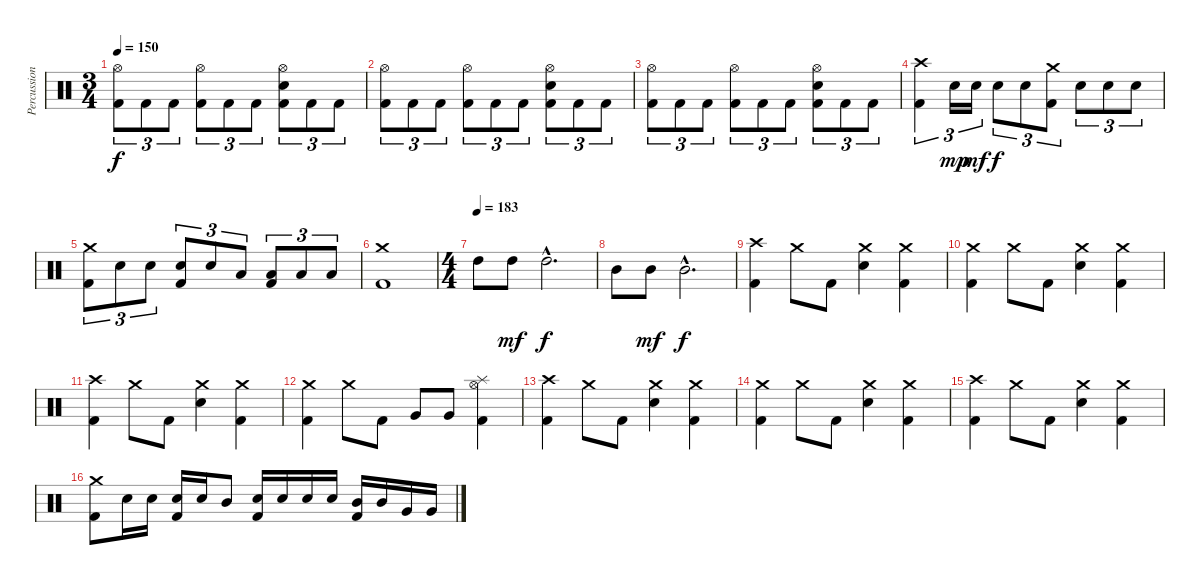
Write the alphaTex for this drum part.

\track ("Percussion" "Percussion") {instrument percussion}
\staff {score}
\articulation defaults
\ts (3 4)
\tempo 150
\clef neutral
\ks c
("Hi-Hat (open)" "Kick (hit) 2").8{tu (3 2) dy f} "Kick (hit) 2".8{tu (3 2)} "Kick (hit) 2".8{tu (3 2)} ("Hi-Hat (open)" "Kick (hit) 2").8{tu (3 2)} "Kick (hit) 2".8{tu (3 2)} "Kick (hit) 2".8{tu (3 2)} ("Hi-Hat (open)" "Electric Snare (hit)" "Kick (hit) 2").8{tu (3 2)} "Kick (hit) 2".8{tu (3 2)} "Kick (hit) 2".8{tu (3 2)} |
("Hi-Hat (open)" "Kick (hit) 2").8{tu (3 2)} "Kick (hit) 2".8{tu (3 2)} "Kick (hit) 2".8{tu (3 2)} ("Hi-Hat (open)" "Kick (hit) 2").8{tu (3 2)} "Kick (hit) 2".8{tu (3 2)} "Kick (hit) 2".8{tu (3 2)} ("Hi-Hat (open)" "Electric Snare (hit)" "Kick (hit) 2").8{tu (3 2)} "Kick (hit) 2".8{tu (3 2)} "Kick (hit) 2".8{tu (3 2)} |
("Hi-Hat (open)" "Kick (hit) 2").8{tu (3 2)} "Kick (hit) 2".8{tu (3 2)} "Kick (hit) 2".8{tu (3 2)} ("Hi-Hat (open)" "Kick (hit) 2").8{tu (3 2)} "Kick (hit) 2".8{tu (3 2)} "Kick (hit) 2".8{tu (3 2)} ("Hi-Hat (open)" "Electric Snare (hit)" "Kick (hit) 2").8{tu (3 2)} "Kick (hit) 2".8{tu (3 2)} "Kick (hit) 2".8{tu (3 2)} |
("Crash high (hit)" "Kick (hit) 2").4{tu (3 2)} "Electric Snare (hit)".16{tu (3 2) dy mp} "Electric Snare (hit)".16{tu (3 2) dy mf} "Electric Snare (hit)".8{tu (3 2) dy f} "Electric Snare (hit)".8{tu (3 2)} ("Crash medium (hit)" "Kick (hit) 2").8{tu (3 2)} "Electric Snare (hit)".8{tu (3 2)} "Electric Snare (hit)".8{tu (3 2)} "Electric Snare (hit)".8{tu (3 2)} |
("Crash medium (hit)" "Kick (hit) 2").8{tu (3 2)} "Electric Snare (hit)".8{tu (3 2)} "Electric Snare (hit)".8{tu (3 2)} ("Electric Snare (hit)" "Kick (hit) 2").8{tu (3 2)} "Electric Snare (hit)".8{tu (3 2)} "Low Tom (hit)".8{tu (3 2)} ("Low Tom (hit)" "Kick (hit) 2").8{tu (3 2)} "Low Floor Tom (hit)".8{tu (3 2)} "Low Floor Tom (hit)".8{tu (3 2)} |
("Crash medium (hit)" "Kick (hit) 2").1 |
\ts (4 4)
\tempo (183)
"High Tom (hit)".8 "High Tom (hit)".8{dy mf} "High Tom (hit)"{hac}.2{d dy f} |
"Mid Tom (hit)".8 "Mid Tom (hit)".8{dy mf} "Mid Tom (hit)"{hac}.2{d dy f} |
("Crash high (hit)" "Kick (hit) 2").4 "Crash medium (hit)".8 "Kick (hit) 2".8 ("Crash medium (hit)" "Electric Snare (hit)").4 ("Crash medium (hit)" "Kick (hit) 2").4 |
("Crash medium (hit)" "Kick (hit) 2").4 "Crash medium (hit)".8 "Kick (hit) 2".8 ("Crash medium (hit)" "Electric Snare (hit)").4 ("Crash medium (hit)" "Kick (hit) 2").4 |
("Crash high (hit)" "Kick (hit) 2").4 "Crash medium (hit)".8 "Kick (hit) 2".8 ("Crash medium (hit)" "Electric Snare (hit)").4 ("Crash medium (hit)" "Kick (hit) 2").4 |
("Crash medium (hit)" "Kick (hit) 2").4 "Crash medium (hit)".8 "Kick (hit) 2".8 "Very Low Tom (hit)".8 "Very Low Tom (hit)".8 ("Splash (hit)" "Hi-Hat (open)" "Kick (hit) 2").4 |
("Crash high (hit)" "Kick (hit) 2").4 "Crash medium (hit)".8 "Kick (hit) 2".8 ("Crash medium (hit)" "Electric Snare (hit)").4 ("Crash medium (hit)" "Kick (hit) 2").4 |
("Crash medium (hit)" "Kick (hit) 2").4 "Crash medium (hit)".8 "Kick (hit) 2".8 ("Crash medium (hit)" "Electric Snare (hit)").4 ("Crash medium (hit)" "Kick (hit) 2").4 |
("Crash high (hit)" "Kick (hit) 2").4 "Crash medium (hit)".8 "Kick (hit) 2".8 ("Crash medium (hit)" "Electric Snare (hit)").4 ("Crash medium (hit)" "Kick (hit) 2").4 |
("Crash medium (hit)" "Kick (hit) 2").8 "Electric Snare (hit)".16 "Electric Snare (hit)".16 ("Electric Snare (hit)" "Kick (hit) 2").16 "Electric Snare (hit)".16 "Mid Tom (hit)".8 ("Electric Snare (hit)" "Kick (hit) 2").16 "Electric Snare (hit)".16 "Electric Snare (hit)".16 "Electric Snare (hit)".16 ("Mid Tom (hit)" "Kick (hit) 2").16 "Mid Tom (hit)".16 "Very Low Tom (hit)".16 "Very Low Tom (hit)".16
